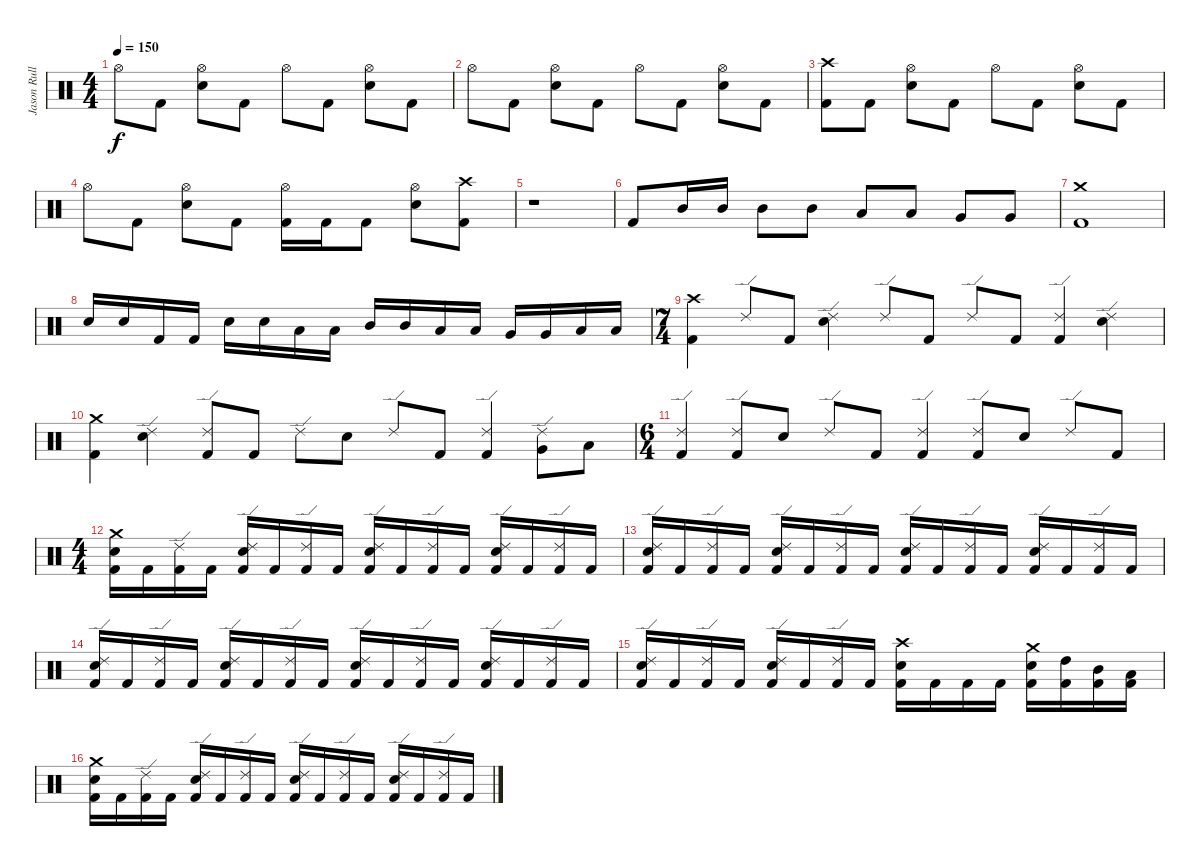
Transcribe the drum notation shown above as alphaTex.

\track ("Jason Rullo" "Jason Rull") {instrument percussion}
\staff {score}
\articulation defaults
\ts (4 4)
\tempo 150
\clef neutral
\ks c "Hi-Hat (open)".8{dy f} "Kick (hit) 2".8
("Hi-Hat (open)" "Electric Snare (hit)").8 "Kick (hit) 2".8 "Hi-Hat (open)".8 "Kick (hit) 2".8 ("Hi-Hat (open)" "Electric Snare (hit)").8 "Kick (hit) 2".8 |
"Hi-Hat (open)".8 "Kick (hit) 2".8 ("Hi-Hat (open)" "Electric Snare (hit)").8 "Kick (hit) 2".8 "Hi-Hat (open)".8 "Kick (hit) 2".8 ("Hi-Hat (open)" "Electric Snare (hit)").8 "Kick (hit) 2".8 |
("Crash high (hit)" "Kick (hit) 2").8 "Kick (hit) 2".8 ("Hi-Hat (open)" "Electric Snare (hit)").8 "Kick (hit) 2".8 "Hi-Hat (open)".8 "Kick (hit) 2".8 ("Hi-Hat (open)" "Electric Snare (hit)").8 "Kick (hit) 2".8 |
"Hi-Hat (open)".8 "Kick (hit) 2".8 ("Hi-Hat (open)" "Electric Snare (hit)").8 "Kick (hit) 2".8 ("Hi-Hat (open)" "Kick (hit) 2").16 "Kick (hit) 2".16 "Kick (hit) 2".8 ("Hi-Hat (open)" "Electric Snare (hit)").8 ("Crash high (hit)" "Kick (hit) 2").8 |
r.1 |
"Kick (hit) 2".8 "Mid Tom (hit)".16 "Mid Tom (hit)".16 "Mid Tom (hit)".8 "Mid Tom (hit)".8 "Low Tom (hit)".8 "Low Tom (hit)".8 "Very Low Tom (hit)".8 "Very Low Tom (hit)".8 |
("Crash medium (hit)" "Kick (hit) 2").1 |
"Electric Snare (hit)".16 "Electric Snare (hit)".16 "Kick (hit) 2".16 "Kick (hit) 2".16 "Electric Snare (hit)".16 "Electric Snare (hit)".16 "Low Tom (hit)".16 "Low Tom (hit)".16 "Mid Tom (hit)".16 "Mid Tom (hit)".16 "Low Tom (hit)".16 "Low Tom (hit)".16 "Very Low Tom (hit)".16 "Very Low Tom (hit)".16 "Low Floor Tom (hit)".16 "Low Floor Tom (hit)".16 |
\ts (7 4)
("Crash high (hit)" "Kick (hit) 2").4{volume 16 balance 8} "Ride (edge) 2".8 "Kick (hit) 2".8 ("Ride (edge) 2" "Electric Snare (hit)").4 "Ride (edge) 2".8 "Kick (hit) 2".8 "Ride (edge) 2".8 "Kick (hit) 2".8 ("Ride (edge) 2" "Kick (hit) 2").4 ("Ride (edge) 2" "Electric Snare (hit)").4 |
("Crash medium (hit)" "Kick (hit) 2").4 ("Ride (edge) 2" "Electric Snare (hit)").4 ("Ride (edge) 2" "Kick (hit) 2").8 "Kick (hit) 2".8 "Ride (edge) 2".8 "Electric Snare (hit)".8 "Ride (edge) 2".8 "Kick (hit) 2".8 ("Ride (edge) 2" "Kick (hit) 2").4 ("Ride (edge) 2" "Very Low Tom (hit)").8 "Low Floor Tom (hit)".8 |
\ts (6 4)
("Ride (edge) 2" "Kick (hit) 2").4 ("Ride (edge) 2" "Kick (hit) 2").8 "Electric Snare (hit)".8 "Ride (edge) 2".8 "Kick (hit) 2".8 ("Ride (edge) 2" "Kick (hit) 2").4 ("Ride (edge) 2" "Kick (hit) 2").8 "Electric Snare (hit)".8 "Ride (edge) 2".8 "Kick (hit) 2".8 |
\ts (4 4)
("Crash medium (hit)" "Electric Snare (hit)" "Kick (hit) 2").16 "Kick (hit) 2".16 ("Ride (edge) 2" "Kick (hit) 2").16 "Kick (hit) 2".16 ("Ride (edge) 2" "Electric Snare (hit)" "Kick (hit) 2").16 "Kick (hit) 2".16 ("Ride (edge) 2" "Kick (hit) 2").16 "Kick (hit) 2".16 ("Ride (edge) 2" "Electric Snare (hit)" "Kick (hit) 2").16 "Kick (hit) 2".16 ("Ride (edge) 2" "Kick (hit) 2").16 "Kick (hit) 2".16 ("Ride (edge) 2" "Electric Snare (hit)" "Kick (hit) 2").16 "Kick (hit) 2".16 ("Ride (edge) 2" "Kick (hit) 2").16 "Kick (hit) 2".16 |
("Ride (edge) 2" "Electric Snare (hit)" "Kick (hit) 2").16 "Kick (hit) 2".16 ("Ride (edge) 2" "Kick (hit) 2").16 "Kick (hit) 2".16 ("Ride (edge) 2" "Electric Snare (hit)" "Kick (hit) 2").16 "Kick (hit) 2".16 ("Ride (edge) 2" "Kick (hit) 2").16 "Kick (hit) 2".16 ("Ride (edge) 2" "Electric Snare (hit)" "Kick (hit) 2").16 "Kick (hit) 2".16 ("Ride (edge) 2" "Kick (hit) 2").16 "Kick (hit) 2".16 ("Ride (edge) 2" "Electric Snare (hit)" "Kick (hit) 2").16 "Kick (hit) 2".16 ("Ride (edge) 2" "Kick (hit) 2").16 "Kick (hit) 2".16 |
("Ride (edge) 2" "Electric Snare (hit)" "Kick (hit) 2").16 "Kick (hit) 2".16 ("Ride (edge) 2" "Kick (hit) 2").16 "Kick (hit) 2".16 ("Ride (edge) 2" "Electric Snare (hit)" "Kick (hit) 2").16 "Kick (hit) 2".16 ("Ride (edge) 2" "Kick (hit) 2").16 "Kick (hit) 2".16 ("Ride (edge) 2" "Electric Snare (hit)" "Kick (hit) 2").16 "Kick (hit) 2".16 ("Ride (edge) 2" "Kick (hit) 2").16 "Kick (hit) 2".16 ("Ride (edge) 2" "Electric Snare (hit)" "Kick (hit) 2").16 "Kick (hit) 2".16 ("Ride (edge) 2" "Kick (hit) 2").16 "Kick (hit) 2".16 |
("Ride (edge) 2" "Electric Snare (hit)" "Kick (hit) 2").16 "Kick (hit) 2".16 ("Ride (edge) 2" "Kick (hit) 2").16 "Kick (hit) 2".16 ("Ride (edge) 2" "Electric Snare (hit)" "Kick (hit) 2").16 "Kick (hit) 2".16 ("Ride (edge) 2" "Kick (hit) 2").16 "Kick (hit) 2".16 ("Crash high (hit)" "Electric Snare (hit)" "Kick (hit) 2").16 "Kick (hit) 2".16 "Kick (hit) 2".16 "Kick (hit) 2".16 ("Crash medium (hit)" "Electric Snare (hit)" "Kick (hit) 2").16 ("High Tom (hit)" "Kick (hit) 2").16 ("Mid Tom (hit)" "Kick (hit) 2").16 ("Low Tom (hit)" "Kick (hit) 2").16 |
("Crash medium (hit)" "Electric Snare (hit)" "Kick (hit) 2").16 "Kick (hit) 2".16 ("Ride (edge) 2" "Kick (hit) 2").16 "Kick (hit) 2".16 ("Ride (edge) 2" "Electric Snare (hit)" "Kick (hit) 2").16 "Kick (hit) 2".16 ("Ride (edge) 2" "Kick (hit) 2").16 "Kick (hit) 2".16 ("Ride (edge) 2" "Electric Snare (hit)" "Kick (hit) 2").16 "Kick (hit) 2".16 ("Ride (edge) 2" "Kick (hit) 2").16 "Kick (hit) 2".16 ("Ride (edge) 2" "Electric Snare (hit)" "Kick (hit) 2").16 "Kick (hit) 2".16 ("Ride (edge) 2" "Kick (hit) 2").16 "Kick (hit) 2".16
